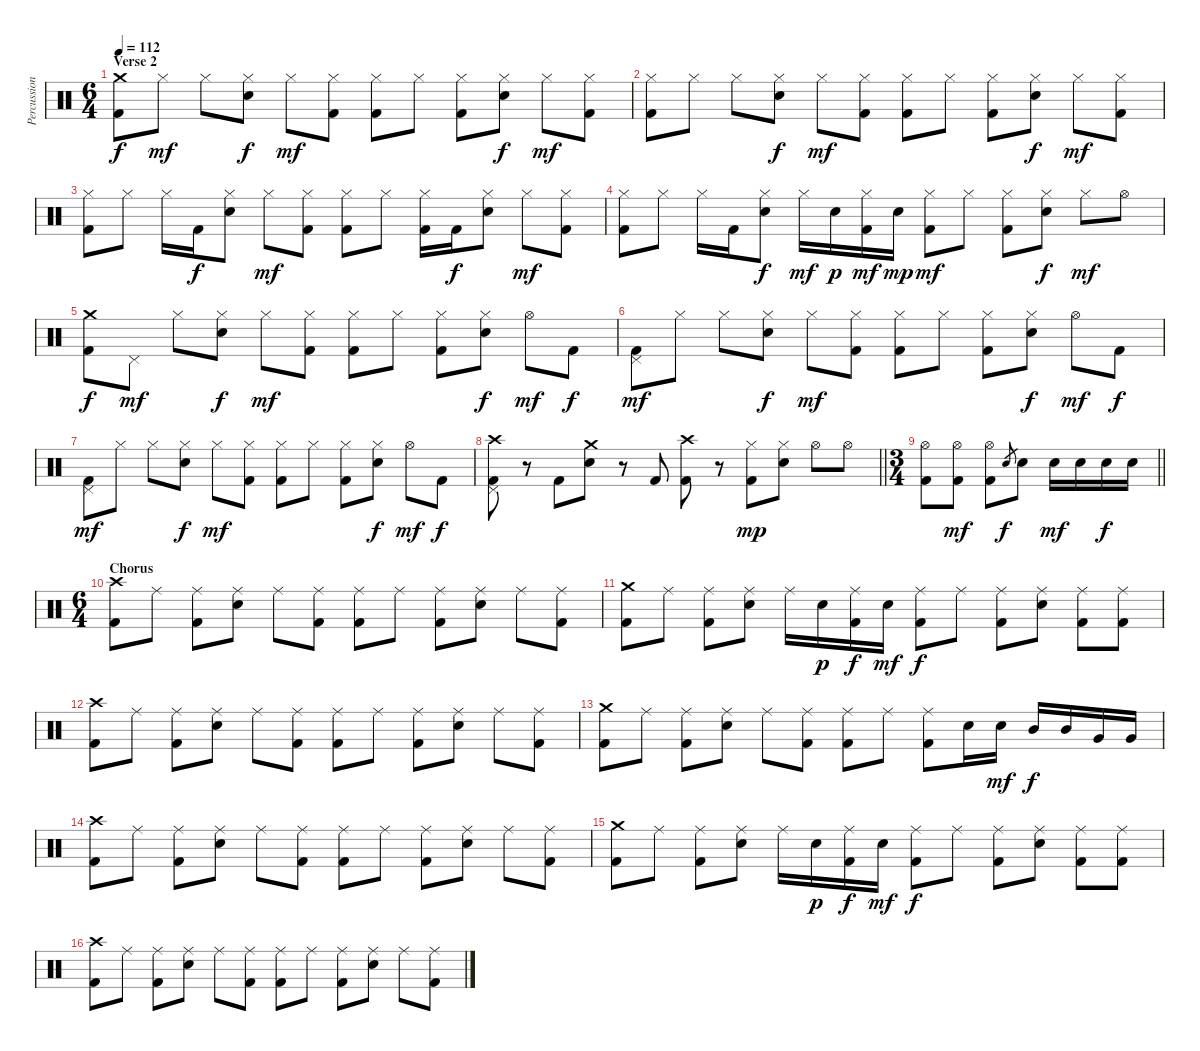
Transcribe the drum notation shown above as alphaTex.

\track ("Percussion" "Percussion") {instrument percussion}
\staff {score}
\articulation defaults
\ts (6 4)
\section ("" "Verse 2")
\tempo 112
\clef neutral
\ks c
("Crash medium (hit)" "Kick (hit) 2").8{dy f} "Hi-Hat (closed)".8{dy mf} "Hi-Hat (closed)".8 ("Hi-Hat (closed)" "Snare (hit) 2").8{dy f} "Hi-Hat (closed)".8{dy mf} ("Hi-Hat (closed)" "Kick (hit) 2").8 ("Hi-Hat (closed)" "Kick (hit) 2").8 "Hi-Hat (closed)".8 ("Hi-Hat (closed)" "Kick (hit) 2").8 ("Hi-Hat (closed)" "Snare (hit) 2").8{dy f} "Hi-Hat (closed)".8{dy mf} ("Hi-Hat (closed)" "Kick (hit) 2").8 |
("Hi-Hat (closed)" "Kick (hit) 2").8 "Hi-Hat (closed)".8 "Hi-Hat (closed)".8 ("Hi-Hat (closed)" "Snare (hit) 2").8{dy f} "Hi-Hat (closed)".8{dy mf} ("Hi-Hat (closed)" "Kick (hit) 2").8 ("Hi-Hat (closed)" "Kick (hit) 2").8 "Hi-Hat (closed)".8 ("Hi-Hat (closed)" "Kick (hit) 2").8 ("Hi-Hat (closed)" "Snare (hit) 2").8{dy f} "Hi-Hat (closed)".8{dy mf} ("Hi-Hat (closed)" "Kick (hit) 2").8 |
("Hi-Hat (closed)" "Kick (hit) 2").8 "Hi-Hat (closed)".8 "Hi-Hat (closed)".16 "Kick (hit) 2".16{dy f} ("Hi-Hat (closed)" "Snare (hit) 2").8 "Hi-Hat (closed)".8{dy mf} ("Hi-Hat (closed)" "Kick (hit) 2").8 ("Hi-Hat (closed)" "Kick (hit) 2").8 "Hi-Hat (closed)".8 ("Hi-Hat (closed)" "Kick (hit) 2").16 "Kick (hit) 2".16{dy f} ("Hi-Hat (closed)" "Snare (hit) 2").8 "Hi-Hat (closed)".8{dy mf} ("Hi-Hat (closed)" "Kick (hit) 2").8 |
("Hi-Hat (closed)" "Kick (hit) 2").8 "Hi-Hat (closed)".8 "Hi-Hat (closed)".16 "Kick (hit) 2".16 ("Hi-Hat (closed)" "Snare (hit) 2").8{dy f} "Hi-Hat (closed)".16{dy mf} "Snare (hit) 2".16{dy p} ("Hi-Hat (closed)" "Kick (hit) 2").16{dy mf} "Snare (hit) 2".16{dy mp} ("Hi-Hat (closed)" "Kick (hit) 2").8{dy mf} "Hi-Hat (closed)".8 ("Hi-Hat (closed)" "Kick (hit) 2").8 ("Hi-Hat (closed)" "Snare (hit) 2").8{dy f} "Hi-Hat (closed)".8{dy mf} "Hi-Hat (open)".8 |
("Crash medium (hit)" "Kick (hit) 2").8{dy f} "Pedal Hi-Hat (hit)".8{dy mf} "Hi-Hat (closed)".8 ("Hi-Hat (closed)" "Snare (hit) 2").8{dy f} "Hi-Hat (closed)".8{dy mf} ("Hi-Hat (closed)" "Kick (hit) 2").8 ("Hi-Hat (closed)" "Kick (hit) 2").8 "Hi-Hat (closed)".8 ("Hi-Hat (closed)" "Kick (hit) 2").8 ("Hi-Hat (closed)" "Snare (hit) 2").8{dy f} "Hi-Hat (open)".8{dy mf} "Kick (hit) 2".8{dy f} |
("Pedal Hi-Hat (hit)" "Kick (hit) 2").8{dy mf} "Hi-Hat (closed)".8 "Hi-Hat (closed)".8 ("Hi-Hat (closed)" "Snare (hit) 2").8{dy f} "Hi-Hat (closed)".8{dy mf} ("Hi-Hat (closed)" "Kick (hit) 2").8 ("Hi-Hat (closed)" "Kick (hit) 2").8 "Hi-Hat (closed)".8 ("Hi-Hat (closed)" "Kick (hit) 2").8 ("Hi-Hat (closed)" "Snare (hit) 2").8{dy f} "Hi-Hat (open)".8{dy mf} "Kick (hit) 2".8{dy f} |
("Pedal Hi-Hat (hit)" "Kick (hit) 2").8{dy mf} "Hi-Hat (closed)".8 "Hi-Hat (closed)".8 ("Hi-Hat (closed)" "Snare (hit) 2").8{dy f} "Hi-Hat (closed)".8{dy mf} ("Hi-Hat (closed)" "Kick (hit) 2").8 ("Hi-Hat (closed)" "Kick (hit) 2").8 "Hi-Hat (closed)".8 ("Hi-Hat (closed)" "Kick (hit) 2").8 ("Hi-Hat (closed)" "Snare (hit) 2").8{dy f} "Hi-Hat (open)".8{dy mf} "Kick (hit) 2".8{dy f} |
\barLineRight lightlight
("Crash high (hit)" "Pedal Hi-Hat (hit)" "Kick (hit) 2").8 r.8 "Kick (hit) 2".8 ("Crash medium (hit)" "Snare (hit) 2").8 r.8 "Kick (hit) 2".8 ("Crash high (hit)" "Kick (hit) 2").8 r.8 ("Hi-Hat (closed)" "Kick (hit) 2").8{dy mp} ("Hi-Hat (closed)" "Snare (hit) 2").8 "Hi-Hat (open)".8 "Hi-Hat (open)".8 |
\ts (3 4)
\barLineRight lightlight
("Hi-Hat (open)" "Kick (hit) 2").8 ("Hi-Hat (open)" "Kick (hit) 2").8{dy mf} ("Hi-Hat (open)" "Kick (hit) 2").8 "Snare (hit) 2".8{gr dy f} "Snare (hit) 2".8 "Snare (hit) 2".16{dy mf} "Snare (hit) 2".16 "Snare (hit) 2".16{dy f} "Snare (hit) 2".16 |
\ts (6 4)
\section ("" "Chorus")
("Crash high (hit)" "Kick (hit) 2").8 "Ride (middle)".8 ("Ride (middle)" "Kick (hit) 2").8 ("Ride (middle)" "Snare (hit) 2").8 "Ride (middle)".8 ("Ride (middle)" "Kick (hit) 2").8 ("Ride (middle)" "Kick (hit) 2").8 "Ride (middle)".8 ("Ride (middle)" "Kick (hit) 2").8 ("Ride (middle)" "Snare (hit) 2").8 "Ride (middle)".8 ("Ride (middle)" "Kick (hit) 2").8 |
("Crash medium (hit)" "Kick (hit) 2").8 "Ride (middle)".8 ("Ride (middle)" "Kick (hit) 2").8 ("Ride (middle)" "Snare (hit) 2").8 "Ride (middle)".16 "Snare (hit) 2".16{dy p} ("Ride (middle)" "Kick (hit) 2").16{dy f} "Snare (hit) 2".16{dy mf} ("Ride (middle)" "Kick (hit) 2").8{dy f} "Ride (middle)".8 ("Ride (middle)" "Kick (hit) 2").8 ("Ride (middle)" "Snare (hit) 2").8 ("Ride (middle)" "Kick (hit) 2").8 ("Ride (middle)" "Kick (hit) 2").8 |
("Crash high (hit)" "Kick (hit) 2").8 "Ride (middle)".8 ("Ride (middle)" "Kick (hit) 2").8 ("Ride (middle)" "Snare (hit) 2").8 "Ride (middle)".8 ("Ride (middle)" "Kick (hit) 2").8 ("Ride (middle)" "Kick (hit) 2").8 "Ride (middle)".8 ("Ride (middle)" "Kick (hit) 2").8 ("Ride (middle)" "Snare (hit) 2").8 "Ride (middle)".8 ("Ride (middle)" "Kick (hit) 2").8 |
("Crash medium (hit)" "Kick (hit) 2").8 "Ride (middle)".8 ("Ride (middle)" "Kick (hit) 2").8 ("Ride (middle)" "Snare (hit) 2").8 "Ride (middle)".8 ("Ride (middle)" "Kick (hit) 2").8 ("Ride (middle)" "Kick (hit) 2").8 "Ride (middle)".8 ("Ride (middle)" "Kick (hit) 2").8 "Snare (hit) 2".16 "Snare (hit) 2".16{dy mf} "Mid Tom (hit)".16{dy f} "Mid Tom (hit)".16 "Very Low Tom (hit)".16 "Very Low Tom (hit)".16 |
("Crash high (hit)" "Kick (hit) 2").8 "Ride (middle)".8 ("Ride (middle)" "Kick (hit) 2").8 ("Ride (middle)" "Snare (hit) 2").8 "Ride (middle)".8 ("Ride (middle)" "Kick (hit) 2").8 ("Ride (middle)" "Kick (hit) 2").8 "Ride (middle)".8 ("Ride (middle)" "Kick (hit) 2").8 ("Ride (middle)" "Snare (hit) 2").8 "Ride (middle)".8 ("Ride (middle)" "Kick (hit) 2").8 |
("Crash medium (hit)" "Kick (hit) 2").8 "Ride (middle)".8 ("Ride (middle)" "Kick (hit) 2").8 ("Ride (middle)" "Snare (hit) 2").8 "Ride (middle)".16 "Snare (hit) 2".16{dy p} ("Ride (middle)" "Kick (hit) 2").16{dy f} "Snare (hit) 2".16{dy mf} ("Ride (middle)" "Kick (hit) 2").8{dy f} "Ride (middle)".8 ("Ride (middle)" "Kick (hit) 2").8 ("Ride (middle)" "Snare (hit) 2").8 ("Ride (middle)" "Kick (hit) 2").8 ("Ride (middle)" "Kick (hit) 2").8 |
("Crash high (hit)" "Kick (hit) 2").8 "Ride (middle)".8 ("Ride (middle)" "Kick (hit) 2").8 ("Ride (middle)" "Snare (hit) 2").8 "Ride (middle)".8 ("Ride (middle)" "Kick (hit) 2").8 ("Ride (middle)" "Kick (hit) 2").8 "Ride (middle)".8 ("Ride (middle)" "Kick (hit) 2").8 ("Ride (middle)" "Snare (hit) 2").8 "Ride (middle)".8 ("Ride (middle)" "Kick (hit) 2").8
